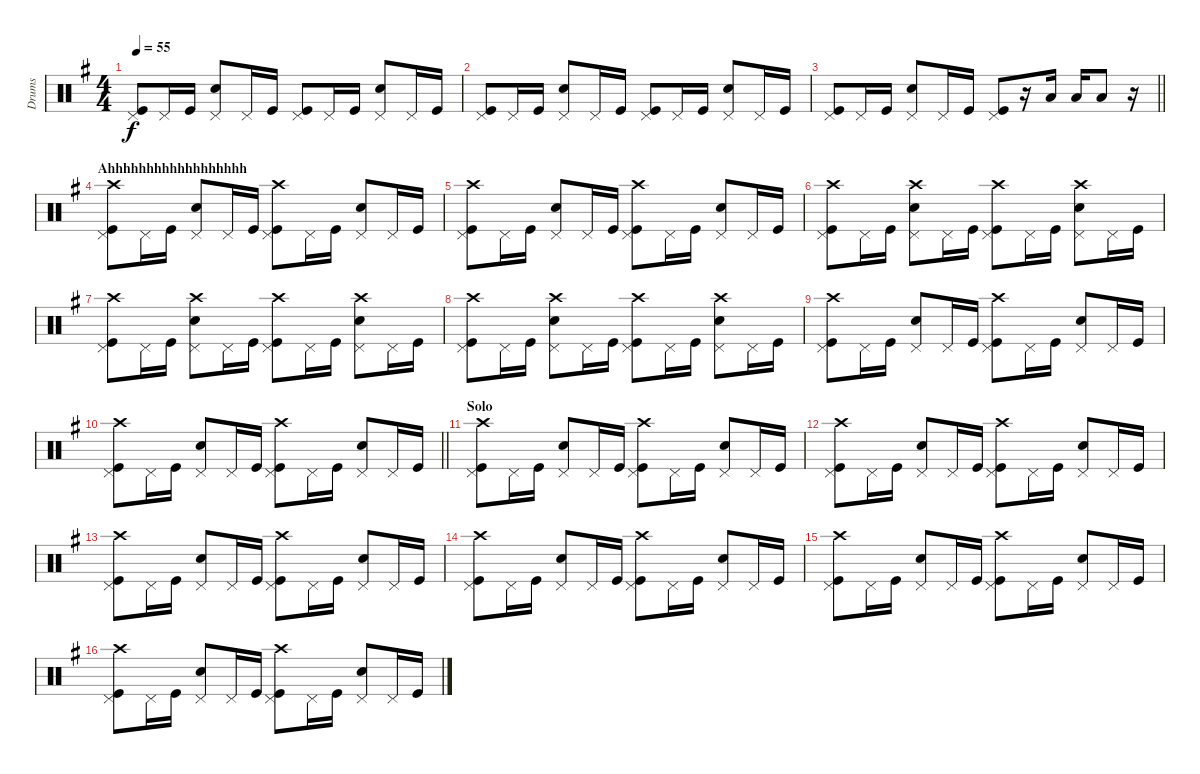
\track ("Drums" "Drums") {instrument percussion}
\staff {score}
\articulation defaults
\ts (4 4)
\tempo 55
\clef neutral
\ks eminor
("Kick (hit)" "Pedal Hi-Hat (hit)").8{dy f} "Pedal Hi-Hat (hit)".16 "Kick (hit)".16 ("Snare (hit) 2" "Pedal Hi-Hat (hit)").8 "Pedal Hi-Hat (hit)".16 "Kick (hit)".16 ("Kick (hit)" "Pedal Hi-Hat (hit)").8 "Pedal Hi-Hat (hit)".16 "Kick (hit)".16 ("Snare (hit) 2" "Pedal Hi-Hat (hit)").8 "Pedal Hi-Hat (hit)".16 "Kick (hit)".16 |
("Kick (hit)" "Pedal Hi-Hat (hit)").8 "Pedal Hi-Hat (hit)".16 "Kick (hit)".16 ("Snare (hit) 2" "Pedal Hi-Hat (hit)").8 "Pedal Hi-Hat (hit)".16 "Kick (hit)".16 ("Kick (hit)" "Pedal Hi-Hat (hit)").8 "Pedal Hi-Hat (hit)".16 "Kick (hit)".16 ("Snare (hit) 2" "Pedal Hi-Hat (hit)").8 "Pedal Hi-Hat (hit)".16 "Kick (hit)".16 |
\barLineRight lightlight
("Kick (hit)" "Pedal Hi-Hat (hit)").8 "Pedal Hi-Hat (hit)".16 "Kick (hit)".16 ("Snare (hit) 2" "Pedal Hi-Hat (hit)").8 "Pedal Hi-Hat (hit)".16 "Kick (hit)".16 ("Kick (hit)" "Pedal Hi-Hat (hit)").8 r.16 "Low Tom (hit)".16 "Low Tom (hit)".16 "Low Tom (hit)".8 r.16 |
\section ("" "Ahhhhhhhhhhhhhhhhhh")
("Crash high (hit)" "Kick (hit)" "Pedal Hi-Hat (hit)").8 "Pedal Hi-Hat (hit)".16 "Kick (hit)".16 ("Snare (hit) 2" "Pedal Hi-Hat (hit)").8 "Pedal Hi-Hat (hit)".16 "Kick (hit)".16 ("Crash high (hit)" "Kick (hit)" "Pedal Hi-Hat (hit)").8 "Pedal Hi-Hat (hit)".16 "Kick (hit)".16 ("Snare (hit) 2" "Pedal Hi-Hat (hit)").8 "Pedal Hi-Hat (hit)".16 "Kick (hit)".16 |
("Crash high (hit)" "Kick (hit)" "Pedal Hi-Hat (hit)").8 "Pedal Hi-Hat (hit)".16 "Kick (hit)".16 ("Snare (hit) 2" "Pedal Hi-Hat (hit)").8 "Pedal Hi-Hat (hit)".16 "Kick (hit)".16 ("Crash high (hit)" "Kick (hit)" "Pedal Hi-Hat (hit)").8 "Pedal Hi-Hat (hit)".16 "Kick (hit)".16 ("Snare (hit) 2" "Pedal Hi-Hat (hit)").8 "Pedal Hi-Hat (hit)".16 "Kick (hit)".16 |
("Crash high (hit)" "Kick (hit)" "Pedal Hi-Hat (hit)").8 "Pedal Hi-Hat (hit)".16 "Kick (hit)".16 ("Crash high (hit)" "Snare (hit) 2" "Pedal Hi-Hat (hit)").8 "Pedal Hi-Hat (hit)".16 "Kick (hit)".16 ("Crash high (hit)" "Kick (hit)" "Pedal Hi-Hat (hit)").8 "Pedal Hi-Hat (hit)".16 "Kick (hit)".16 ("Crash high (hit)" "Snare (hit) 2" "Pedal Hi-Hat (hit)").8 "Pedal Hi-Hat (hit)".16 "Kick (hit)".16 |
("Crash high (hit)" "Kick (hit)" "Pedal Hi-Hat (hit)").8 "Pedal Hi-Hat (hit)".16 "Kick (hit)".16 ("Crash high (hit)" "Snare (hit) 2" "Pedal Hi-Hat (hit)").8 "Pedal Hi-Hat (hit)".16 "Kick (hit)".16 ("Crash high (hit)" "Kick (hit)" "Pedal Hi-Hat (hit)").8 "Pedal Hi-Hat (hit)".16 "Kick (hit)".16 ("Crash high (hit)" "Snare (hit) 2" "Pedal Hi-Hat (hit)").8 "Pedal Hi-Hat (hit)".16 "Kick (hit)".16 |
("Crash high (hit)" "Kick (hit)" "Pedal Hi-Hat (hit)").8 "Pedal Hi-Hat (hit)".16 "Kick (hit)".16 ("Crash high (hit)" "Snare (hit) 2" "Pedal Hi-Hat (hit)").8 "Pedal Hi-Hat (hit)".16 "Kick (hit)".16 ("Crash high (hit)" "Kick (hit)" "Pedal Hi-Hat (hit)").8 "Pedal Hi-Hat (hit)".16 "Kick (hit)".16 ("Crash high (hit)" "Snare (hit) 2" "Pedal Hi-Hat (hit)").8 "Pedal Hi-Hat (hit)".16 "Kick (hit)".16 |
("Crash high (hit)" "Kick (hit)" "Pedal Hi-Hat (hit)").8 "Pedal Hi-Hat (hit)".16 "Kick (hit)".16 ("Snare (hit) 2" "Pedal Hi-Hat (hit)").8 "Pedal Hi-Hat (hit)".16 "Kick (hit)".16 ("Crash high (hit)" "Kick (hit)" "Pedal Hi-Hat (hit)").8 "Pedal Hi-Hat (hit)".16 "Kick (hit)".16 ("Snare (hit) 2" "Pedal Hi-Hat (hit)").8 "Pedal Hi-Hat (hit)".16 "Kick (hit)".16 |
\barLineRight lightlight
("Crash high (hit)" "Kick (hit)" "Pedal Hi-Hat (hit)").8 "Pedal Hi-Hat (hit)".16 "Kick (hit)".16 ("Snare (hit) 2" "Pedal Hi-Hat (hit)").8 "Pedal Hi-Hat (hit)".16 "Kick (hit)".16 ("Crash high (hit)" "Kick (hit)" "Pedal Hi-Hat (hit)").8 "Pedal Hi-Hat (hit)".16 "Kick (hit)".16 ("Snare (hit) 2" "Pedal Hi-Hat (hit)").8 "Pedal Hi-Hat (hit)".16 "Kick (hit)".16 |
\section ("" "Solo")
("Crash high (hit)" "Kick (hit)" "Pedal Hi-Hat (hit)").8 "Pedal Hi-Hat (hit)".16 "Kick (hit)".16 ("Snare (hit) 2" "Pedal Hi-Hat (hit)").8 "Pedal Hi-Hat (hit)".16 "Kick (hit)".16 ("Crash high (hit)" "Kick (hit)" "Pedal Hi-Hat (hit)").8 "Pedal Hi-Hat (hit)".16 "Kick (hit)".16 ("Snare (hit) 2" "Pedal Hi-Hat (hit)").8 "Pedal Hi-Hat (hit)".16 "Kick (hit)".16 |
("Crash high (hit)" "Kick (hit)" "Pedal Hi-Hat (hit)").8 "Pedal Hi-Hat (hit)".16 "Kick (hit)".16 ("Snare (hit) 2" "Pedal Hi-Hat (hit)").8 "Pedal Hi-Hat (hit)".16 "Kick (hit)".16 ("Crash high (hit)" "Kick (hit)" "Pedal Hi-Hat (hit)").8 "Pedal Hi-Hat (hit)".16 "Kick (hit)".16 ("Snare (hit) 2" "Pedal Hi-Hat (hit)").8 "Pedal Hi-Hat (hit)".16 "Kick (hit)".16 |
("Crash high (hit)" "Kick (hit)" "Pedal Hi-Hat (hit)").8 "Pedal Hi-Hat (hit)".16 "Kick (hit)".16 ("Snare (hit) 2" "Pedal Hi-Hat (hit)").8 "Pedal Hi-Hat (hit)".16 "Kick (hit)".16 ("Crash high (hit)" "Kick (hit)" "Pedal Hi-Hat (hit)").8 "Pedal Hi-Hat (hit)".16 "Kick (hit)".16 ("Snare (hit) 2" "Pedal Hi-Hat (hit)").8 "Pedal Hi-Hat (hit)".16 "Kick (hit)".16 |
("Crash high (hit)" "Kick (hit)" "Pedal Hi-Hat (hit)").8 "Pedal Hi-Hat (hit)".16 "Kick (hit)".16 ("Snare (hit) 2" "Pedal Hi-Hat (hit)").8 "Pedal Hi-Hat (hit)".16 "Kick (hit)".16 ("Crash high (hit)" "Kick (hit)" "Pedal Hi-Hat (hit)").8 "Pedal Hi-Hat (hit)".16 "Kick (hit)".16 ("Snare (hit) 2" "Pedal Hi-Hat (hit)").8 "Pedal Hi-Hat (hit)".16 "Kick (hit)".16 |
("Crash high (hit)" "Kick (hit)" "Pedal Hi-Hat (hit)").8 "Pedal Hi-Hat (hit)".16 "Kick (hit)".16 ("Snare (hit) 2" "Pedal Hi-Hat (hit)").8 "Pedal Hi-Hat (hit)".16 "Kick (hit)".16 ("Crash high (hit)" "Kick (hit)" "Pedal Hi-Hat (hit)").8 "Pedal Hi-Hat (hit)".16 "Kick (hit)".16 ("Snare (hit) 2" "Pedal Hi-Hat (hit)").8 "Pedal Hi-Hat (hit)".16 "Kick (hit)".16 |
("Crash high (hit)" "Kick (hit)" "Pedal Hi-Hat (hit)").8 "Pedal Hi-Hat (hit)".16 "Kick (hit)".16 ("Snare (hit) 2" "Pedal Hi-Hat (hit)").8 "Pedal Hi-Hat (hit)".16 "Kick (hit)".16 ("Crash high (hit)" "Kick (hit)" "Pedal Hi-Hat (hit)").8 "Pedal Hi-Hat (hit)".16 "Kick (hit)".16 ("Snare (hit) 2" "Pedal Hi-Hat (hit)").8 "Pedal Hi-Hat (hit)".16 "Kick (hit)".16
